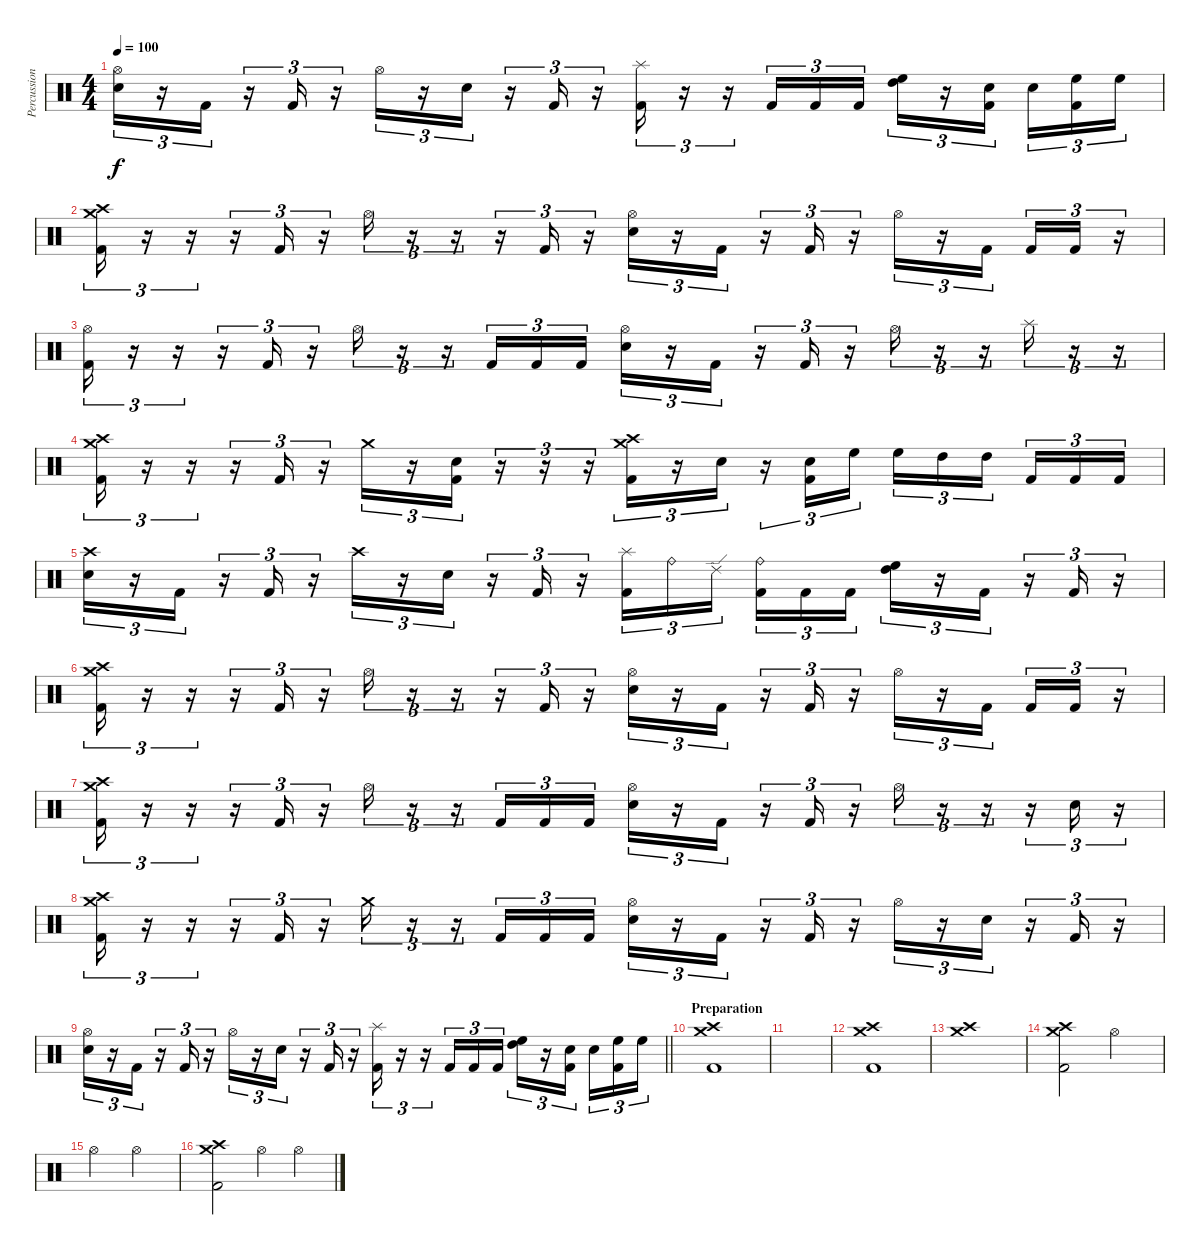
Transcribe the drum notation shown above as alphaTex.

\track ("Percussion" "Percussion") {instrument percussion}
\staff {score}
\articulation defaults
\ts (4 4)
\tempo 100
\clef neutral
\ks c
("Hi-Hat (open)" "Electric Snare (hit)").16{tu (3 2) dy f} r.16{tu (3 2)} "Kick (hit) 2".16{tu (3 2)} r.16{tu (3 2)} "Kick (hit) 2".16{tu (3 2)} r.16{tu (3 2)} "Hi-Hat (open)".16{tu (3 2)} r.16{tu (3 2)} "Electric Snare (hit)".16{tu (3 2)} r.16{tu (3 2)} "Kick (hit) 2".16{tu (3 2)} r.16{tu (3 2)} ("Splash (hit)" "Kick (hit) 2").16{tu (3 2)} r.16{tu (3 2)} r.16{tu (3 2)} "Kick (hit) 2".16{tu (3 2)} "Kick (hit) 2".16{tu (3 2)} "Kick (hit) 2".16{tu (3 2)} ("High Floor Tom (hit)" "High Tom (hit)").16{tu (3 2)} r.16{tu (3 2)} ("Electric Snare (hit)" "Kick (hit) 2").16{tu (3 2) beam splitsecondary} "Electric Snare (hit)".16{tu (3 2)} ("High Floor Tom (hit)" "Kick (hit) 2").16{tu (3 2)} "High Floor Tom (hit)".16{tu (3 2)} |
("Crash high (hit)" "Crash medium (hit)" "Kick (hit) 2").16{tu (3 2)} r.16{tu (3 2)} r.16{tu (3 2)} r.16{tu (3 2)} "Kick (hit) 2".16{tu (3 2)} r.16{tu (3 2)} "Hi-Hat (open)".16{tu (3 2)} r.16{tu (3 2)} r.16{tu (3 2)} r.16{tu (3 2)} "Kick (hit) 2".16{tu (3 2)} r.16{tu (3 2)} ("Hi-Hat (open)" "Electric Snare (hit)").16{tu (3 2)} r.16{tu (3 2)} "Kick (hit) 2".16{tu (3 2)} r.16{tu (3 2)} "Kick (hit) 2".16{tu (3 2)} r.16{tu (3 2)} "Hi-Hat (open)".16{tu (3 2)} r.16{tu (3 2)} "Kick (hit) 2".16{tu (3 2) beam splitsecondary} "Kick (hit) 2".16{tu (3 2)} "Kick (hit) 2".16{tu (3 2)} r.16{tu (3 2)} |
("Hi-Hat (open)" "Kick (hit) 2").16{tu (3 2)} r.16{tu (3 2)} r.16{tu (3 2)} r.16{tu (3 2)} "Kick (hit) 2".16{tu (3 2)} r.16{tu (3 2)} "Hi-Hat (open)".16{tu (3 2)} r.16{tu (3 2)} r.16{tu (3 2)} "Kick (hit) 2".16{tu (3 2)} "Kick (hit) 2".16{tu (3 2)} "Kick (hit) 2".16{tu (3 2)} ("Hi-Hat (open)" "Electric Snare (hit)").16{tu (3 2)} r.16{tu (3 2)} "Kick (hit) 2".16{tu (3 2)} r.16{tu (3 2)} "Kick (hit) 2".16{tu (3 2)} r.16{tu (3 2)} "Hi-Hat (open)".16{tu (3 2)} r.16{tu (3 2)} r.16{tu (3 2)} "Splash (hit)".16{tu (3 2)} r.16{tu (3 2)} r.16{tu (3 2)} |
("Crash high (hit)" "Crash medium (hit)" "Kick (hit) 2").16{tu (3 2)} r.16{tu (3 2)} r.16{tu (3 2)} r.16{tu (3 2)} "Kick (hit) 2".16{tu (3 2)} r.16{tu (3 2)} "Crash medium (hit)".16{tu (3 2)} r.16{tu (3 2)} ("Electric Snare (hit)" "Kick (hit) 2").16{tu (3 2)} r.16{tu (3 2)} r.16{tu (3 2)} r.16{tu (3 2)} ("Crash high (hit)" "Crash medium (hit)" "Kick (hit) 2").16{tu (3 2)} r.16{tu (3 2)} "Electric Snare (hit)".16{tu (3 2)} r.16{tu (3 2)} ("Electric Snare (hit)" "Kick (hit) 2").16{tu (3 2)} "High Floor Tom (hit)".16{tu (3 2)} "High Floor Tom (hit)".16{tu (3 2)} "High Tom (hit)".16{tu (3 2)} "High Tom (hit)".16{tu (3 2) beam splitsecondary} "Kick (hit) 2".16{tu (3 2)} "Kick (hit) 2".16{tu (3 2)} "Kick (hit) 2".16{tu (3 2)} |
("Crash high (hit)" "Electric Snare (hit)").16{tu (3 2)} r.16{tu (3 2)} "Kick (hit) 2".16{tu (3 2)} r.16{tu (3 2)} "Kick (hit) 2".16{tu (3 2)} r.16{tu (3 2)} "Crash high (hit)".16{tu (3 2)} r.16{tu (3 2)} "Electric Snare (hit)".16{tu (3 2)} r.16{tu (3 2)} "Kick (hit) 2".16{tu (3 2)} r.16{tu (3 2)} ("Splash (hit)" "Kick (hit) 2").16{tu (3 2)} "Ride (bell)".16{tu (3 2)} "Ride (edge) 2".16{tu (3 2) beam splitsecondary} ("Ride (bell)" "Kick (hit) 2").16{tu (3 2)} "Kick (hit) 2".16{tu (3 2)} "Kick (hit) 2".16{tu (3 2)} ("High Floor Tom (hit)" "High Tom (hit)").16{tu (3 2)} r.16{tu (3 2)} "Kick (hit) 2".16{tu (3 2)} r.16{tu (3 2)} "Kick (hit) 2".16{tu (3 2)} r.16{tu (3 2)} |
("Crash high (hit)" "Crash medium (hit)" "Kick (hit) 2").16{tu (3 2)} r.16{tu (3 2)} r.16{tu (3 2)} r.16{tu (3 2)} "Kick (hit) 2".16{tu (3 2)} r.16{tu (3 2)} "Hi-Hat (open)".16{tu (3 2)} r.16{tu (3 2)} r.16{tu (3 2)} r.16{tu (3 2)} "Kick (hit) 2".16{tu (3 2)} r.16{tu (3 2)} ("Hi-Hat (open)" "Electric Snare (hit)").16{tu (3 2)} r.16{tu (3 2)} "Kick (hit) 2".16{tu (3 2)} r.16{tu (3 2)} "Kick (hit) 2".16{tu (3 2)} r.16{tu (3 2)} "Hi-Hat (open)".16{tu (3 2)} r.16{tu (3 2)} "Kick (hit) 2".16{tu (3 2) beam splitsecondary} "Kick (hit) 2".16{tu (3 2)} "Kick (hit) 2".16{tu (3 2)} r.16{tu (3 2)} |
("Crash high (hit)" "Crash medium (hit)" "Kick (hit) 2").16{tu (3 2)} r.16{tu (3 2)} r.16{tu (3 2)} r.16{tu (3 2)} "Kick (hit) 2".16{tu (3 2)} r.16{tu (3 2)} "Hi-Hat (open)".16{tu (3 2)} r.16{tu (3 2)} r.16{tu (3 2)} "Kick (hit) 2".16{tu (3 2)} "Kick (hit) 2".16{tu (3 2)} "Kick (hit) 2".16{tu (3 2)} ("Hi-Hat (open)" "Electric Snare (hit)").16{tu (3 2)} r.16{tu (3 2)} "Kick (hit) 2".16{tu (3 2)} r.16{tu (3 2)} "Kick (hit) 2".16{tu (3 2)} r.16{tu (3 2)} "Hi-Hat (open)".16{tu (3 2)} r.16{tu (3 2)} r.16{tu (3 2)} r.16{tu (3 2)} "Electric Snare (hit)".16{tu (3 2)} r.16{tu (3 2)} |
("Crash high (hit)" "Crash medium (hit)" "Kick (hit) 2").16{tu (3 2)} r.16{tu (3 2)} r.16{tu (3 2)} r.16{tu (3 2)} "Kick (hit) 2".16{tu (3 2)} r.16{tu (3 2)} "Crash medium (hit)".16{tu (3 2)} r.16{tu (3 2)} r.16{tu (3 2)} "Kick (hit) 2".16{tu (3 2)} "Kick (hit) 2".16{tu (3 2)} "Kick (hit) 2".16{tu (3 2)} ("Hi-Hat (open)" "Electric Snare (hit)").16{tu (3 2)} r.16{tu (3 2)} "Kick (hit) 2".16{tu (3 2)} r.16{tu (3 2)} "Kick (hit) 2".16{tu (3 2)} r.16{tu (3 2)} "Hi-Hat (open)".16{tu (3 2)} r.16{tu (3 2)} "Electric Snare (hit)".16{tu (3 2)} r.16{tu (3 2)} "Kick (hit) 2".16{tu (3 2)} r.16{tu (3 2)} |
\barLineRight lightlight
("Hi-Hat (open)" "Electric Snare (hit)").16{tu (3 2)} r.16{tu (3 2)} "Kick (hit) 2".16{tu (3 2)} r.16{tu (3 2)} "Kick (hit) 2".16{tu (3 2)} r.16{tu (3 2)} "Hi-Hat (open)".16{tu (3 2)} r.16{tu (3 2)} "Electric Snare (hit)".16{tu (3 2)} r.16{tu (3 2)} "Kick (hit) 2".16{tu (3 2)} r.16{tu (3 2)} ("Splash (hit)" "Kick (hit) 2").16{tu (3 2)} r.16{tu (3 2)} r.16{tu (3 2)} "Kick (hit) 2".16{tu (3 2)} "Kick (hit) 2".16{tu (3 2)} "Kick (hit) 2".16{tu (3 2)} ("High Floor Tom (hit)" "High Tom (hit)").16{tu (3 2)} r.16{tu (3 2)} ("Electric Snare (hit)" "Kick (hit) 2").16{tu (3 2) beam splitsecondary} "Electric Snare (hit)".16{tu (3 2)} ("High Floor Tom (hit)" "Kick (hit) 2").16{tu (3 2)} "High Floor Tom (hit)".16{tu (3 2)} |
\section ("" "Preparation")
("Crash medium (hit)" "Crash high (hit)" "Kick (hit) 2").1 |
|
("Crash medium (hit)" "Crash high (hit)" "Kick (hit) 2").1 |
("Crash medium (hit)" "Crash high (hit)").1 |
("Crash medium (hit)" "Crash high (hit)" "Kick (hit) 2").2 "Hi-Hat (open)".2 |
"Hi-Hat (open)".2 "Hi-Hat (open)".2 |
("Crash medium (hit)" "Crash high (hit)" "Kick (hit) 2").2 "Hi-Hat (open)".4 "Hi-Hat (open)".4
